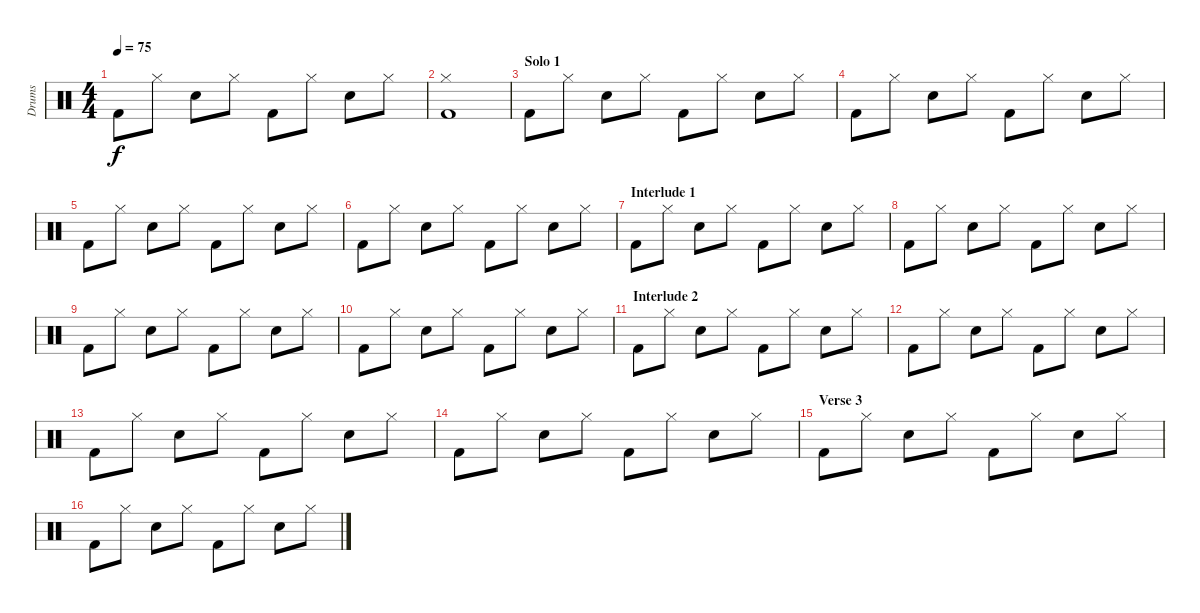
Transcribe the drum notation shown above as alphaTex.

\track ("Drums" "Drums") {instrument percussion}
\staff {score}
\articulation defaults
\ts (4 4)
\tempo 75
\clef neutral
\ks c "Kick (hit) 2".8{dy f} "Hi-Hat (closed)".8 "Snare (hit) 2".8 "Hi-Hat (closed)".8 "Kick (hit) 2".8 "Hi-Hat (closed)".8 "Snare (hit) 2".8 "Hi-Hat (closed)".8
|
("Kick (hit) 2" "Hi-Hat (closed)").1 |
\section ("" "Solo 1")
"Kick (hit) 2".8 "Hi-Hat (closed)".8 "Snare (hit) 2".8 "Hi-Hat (closed)".8 "Kick (hit) 2".8 "Hi-Hat (closed)".8 "Snare (hit) 2".8 "Hi-Hat (closed)".8 |
"Kick (hit) 2".8 "Hi-Hat (closed)".8 "Snare (hit) 2".8 "Hi-Hat (closed)".8 "Kick (hit) 2".8 "Hi-Hat (closed)".8 "Snare (hit) 2".8 "Hi-Hat (closed)".8 |
"Kick (hit) 2".8 "Hi-Hat (closed)".8 "Snare (hit) 2".8 "Hi-Hat (closed)".8 "Kick (hit) 2".8 "Hi-Hat (closed)".8 "Snare (hit) 2".8 "Hi-Hat (closed)".8 |
"Kick (hit) 2".8 "Hi-Hat (closed)".8 "Snare (hit) 2".8 "Hi-Hat (closed)".8 "Kick (hit) 2".8 "Hi-Hat (closed)".8 "Snare (hit) 2".8 "Hi-Hat (closed)".8 |
\section ("" "Interlude 1")
"Kick (hit) 2".8 "Hi-Hat (closed)".8 "Snare (hit) 2".8 "Hi-Hat (closed)".8 "Kick (hit) 2".8 "Hi-Hat (closed)".8 "Snare (hit) 2".8 "Hi-Hat (closed)".8 |
"Kick (hit) 2".8 "Hi-Hat (closed)".8 "Snare (hit) 2".8 "Hi-Hat (closed)".8 "Kick (hit) 2".8 "Hi-Hat (closed)".8 "Snare (hit) 2".8 "Hi-Hat (closed)".8 |
"Kick (hit) 2".8 "Hi-Hat (closed)".8 "Snare (hit) 2".8 "Hi-Hat (closed)".8 "Kick (hit) 2".8 "Hi-Hat (closed)".8 "Snare (hit) 2".8 "Hi-Hat (closed)".8 |
"Kick (hit) 2".8 "Hi-Hat (closed)".8 "Snare (hit) 2".8 "Hi-Hat (closed)".8 "Kick (hit) 2".8 "Hi-Hat (closed)".8 "Snare (hit) 2".8 "Hi-Hat (closed)".8 |
\section ("" "Interlude 2")
"Kick (hit) 2".8 "Hi-Hat (closed)".8 "Snare (hit) 2".8 "Hi-Hat (closed)".8 "Kick (hit) 2".8 "Hi-Hat (closed)".8 "Snare (hit) 2".8 "Hi-Hat (closed)".8 |
"Kick (hit) 2".8 "Hi-Hat (closed)".8 "Snare (hit) 2".8 "Hi-Hat (closed)".8 "Kick (hit) 2".8 "Hi-Hat (closed)".8 "Snare (hit) 2".8 "Hi-Hat (closed)".8 |
"Kick (hit) 2".8 "Hi-Hat (closed)".8 "Snare (hit) 2".8 "Hi-Hat (closed)".8 "Kick (hit) 2".8 "Hi-Hat (closed)".8 "Snare (hit) 2".8 "Hi-Hat (closed)".8 |
"Kick (hit) 2".8 "Hi-Hat (closed)".8 "Snare (hit) 2".8 "Hi-Hat (closed)".8 "Kick (hit) 2".8 "Hi-Hat (closed)".8 "Snare (hit) 2".8 "Hi-Hat (closed)".8 |
\section ("" "Verse 3")
"Kick (hit) 2".8 "Hi-Hat (closed)".8 "Snare (hit) 2".8 "Hi-Hat (closed)".8 "Kick (hit) 2".8 "Hi-Hat (closed)".8 "Snare (hit) 2".8 "Hi-Hat (closed)".8 |
"Kick (hit) 2".8 "Hi-Hat (closed)".8 "Snare (hit) 2".8 "Hi-Hat (closed)".8 "Kick (hit) 2".8 "Hi-Hat (closed)".8 "Snare (hit) 2".8 "Hi-Hat (closed)".8
